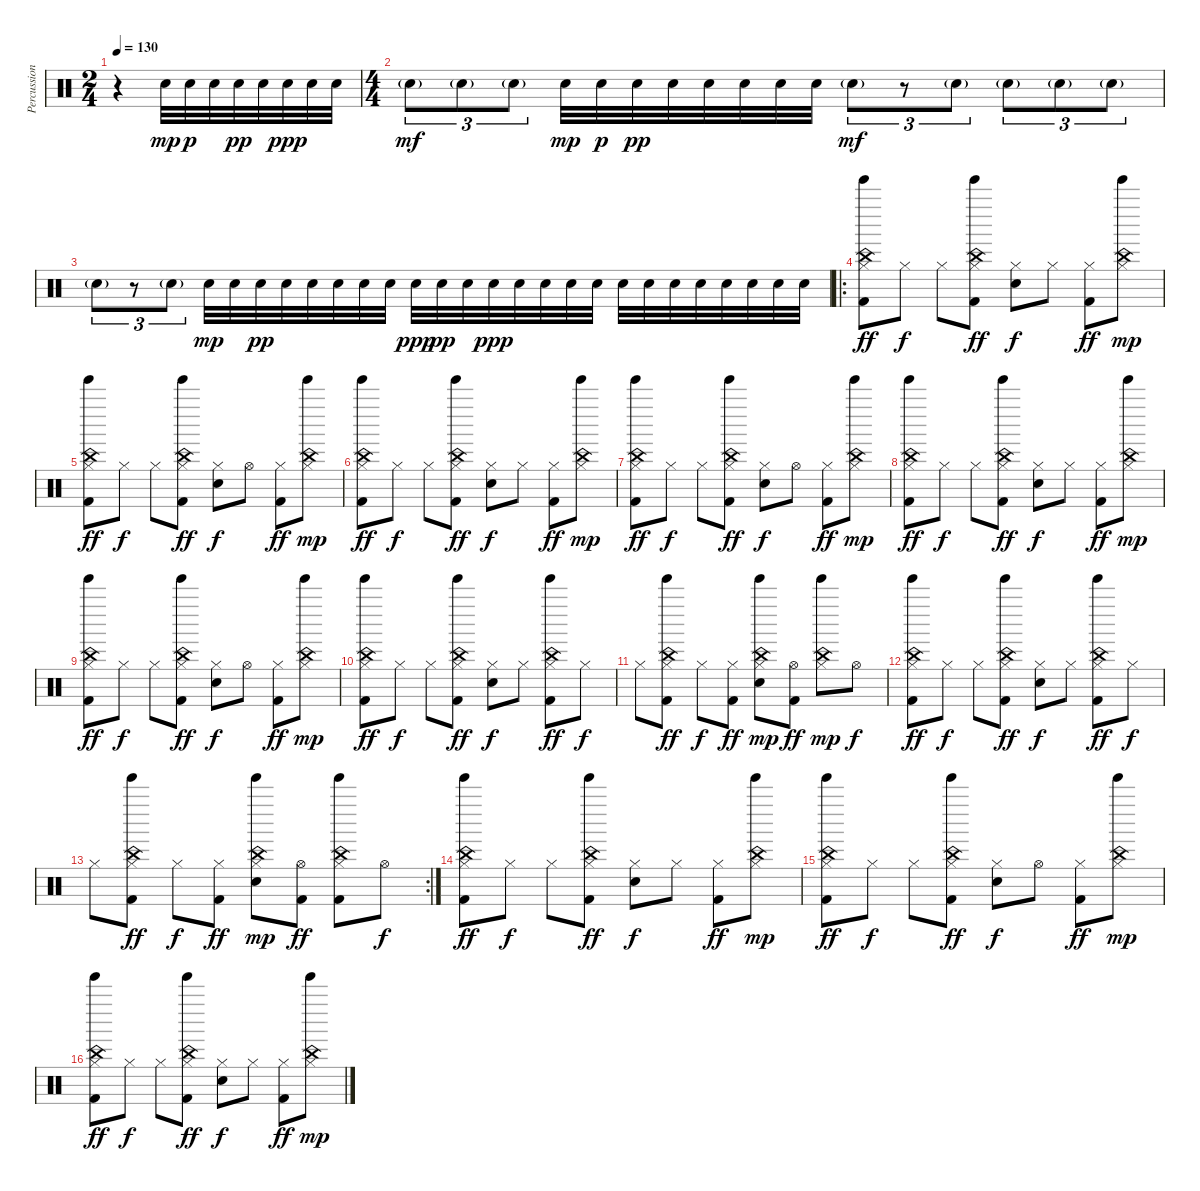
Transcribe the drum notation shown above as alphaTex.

\track ("Percussion" "Percussion") {instrument percussion}
\staff {score}
\articulation defaults
\ts (2 4)
\tempo 130
\clef neutral
\ks aminor
r.4{dy mp} "Snare (hit) 2".32 "Snare (hit) 2".32{dy p} "Snare (hit) 2".32 "Snare (hit) 2".32{dy pp} "Snare (hit) 2".32 "Snare (hit) 2".32{dy ppp} "Snare (hit) 2".32 "Snare (hit) 2".32 |
\ts (4 4)
"Electric Snare (hit)"{g}.8{tu (3 2) dy mf} "Electric Snare (hit)"{g}.8{tu (3 2)} "Electric Snare (hit)"{g}.8{tu (3 2)} "Snare (hit) 2".32{dy mp} "Snare (hit) 2".32{dy p} "Snare (hit) 2".32{dy pp} "Snare (hit) 2".32 "Snare (hit) 2".32 "Snare (hit) 2".32 "Snare (hit) 2".32 "Snare (hit) 2".32 "Electric Snare (hit)"{g}.8{tu (3 2) dy mf} r.8{tu (3 2)} "Electric Snare (hit)"{g}.8{tu (3 2)} "Electric Snare (hit)"{g}.8{tu (3 2)} "Electric Snare (hit)"{g}.8{tu (3 2)} "Electric Snare (hit)"{g}.8{tu (3 2)} |
"Electric Snare (hit)"{g}.8{tu (3 2)} r.8{tu (3 2)} "Electric Snare (hit)"{g}.8{tu (3 2)} "Snare (hit) 2".32{dy mp} "Snare (hit) 2".32 "Snare (hit) 2".32{dy pp} "Snare (hit) 2".32 "Snare (hit) 2".32 "Snare (hit) 2".32 "Snare (hit) 2".32 "Snare (hit) 2".32 "Snare (hit) 2".32{dy ppp} "Snare (hit) 2".32{dy pp} "Snare (hit) 2".32 "Snare (hit) 2".32{dy ppp} "Snare (hit) 2".32 "Snare (hit) 2".32 "Snare (hit) 2".32 "Snare (hit) 2".32 "Snare (hit) 2".32 "Snare (hit) 2".32 "Snare (hit) 2".32 "Snare (hit) 2".32 "Snare (hit) 2".32 "Snare (hit) 2".32 "Snare (hit) 2".32 "Snare (hit) 2".32 |
\ro
\ks c
("Hi-Hat (closed)" "China (hit)" "Tinkle Bell (hit)" "Kick (hit) 2").8{dy ff} "Hi-Hat (closed)".8{dy f} "Hi-Hat (closed)".8 ("Hi-Hat (closed)" "China (hit)" "Tinkle Bell (hit)" "Kick (hit) 2").8{dy ff} ("Hi-Hat (closed)" "Snare (hit) 2").8{dy f} "Hi-Hat (closed)".8 ("Hi-Hat (closed)" "Kick (hit) 2").8{dy ff} ("Hi-Hat (closed)" "China (hit)" "Tinkle Bell (hit)").8{dy mp} |
("Hi-Hat (closed)" "China (hit)" "Tinkle Bell (hit)" "Kick (hit) 2").8{dy ff} "Hi-Hat (closed)".8{dy f} "Hi-Hat (closed)".8 ("Hi-Hat (closed)" "China (hit)" "Tinkle Bell (hit)" "Kick (hit) 2").8{dy ff} ("Hi-Hat (closed)" "Snare (hit) 2").8{dy f} "Hi-Hat (open)".8 ("Hi-Hat (closed)" "Kick (hit) 2").8{dy ff} ("Hi-Hat (closed)" "China (hit)" "Tinkle Bell (hit)").8{dy mp} |
("Hi-Hat (closed)" "China (hit)" "Tinkle Bell (hit)" "Kick (hit) 2").8{dy ff} "Hi-Hat (closed)".8{dy f} "Hi-Hat (closed)".8 ("Hi-Hat (closed)" "China (hit)" "Tinkle Bell (hit)" "Kick (hit) 2").8{dy ff} ("Hi-Hat (closed)" "Snare (hit) 2").8{dy f} "Hi-Hat (closed)".8 ("Hi-Hat (closed)" "Kick (hit) 2").8{dy ff} ("Hi-Hat (closed)" "China (hit)" "Tinkle Bell (hit)").8{dy mp} |
("Hi-Hat (closed)" "China (hit)" "Tinkle Bell (hit)" "Kick (hit) 2").8{dy ff} "Hi-Hat (closed)".8{dy f} "Hi-Hat (closed)".8 ("Hi-Hat (closed)" "China (hit)" "Tinkle Bell (hit)" "Kick (hit) 2").8{dy ff} ("Hi-Hat (closed)" "Snare (hit) 2").8{dy f} "Hi-Hat (open)".8 ("Hi-Hat (closed)" "Kick (hit) 2").8{dy ff} ("Hi-Hat (closed)" "China (hit)" "Tinkle Bell (hit)").8{dy mp} |
("Hi-Hat (closed)" "China (hit)" "Tinkle Bell (hit)" "Kick (hit) 2").8{dy ff} "Hi-Hat (closed)".8{dy f} "Hi-Hat (closed)".8 ("Hi-Hat (closed)" "China (hit)" "Tinkle Bell (hit)" "Kick (hit) 2").8{dy ff} ("Hi-Hat (closed)" "Snare (hit) 2").8{dy f} "Hi-Hat (closed)".8 ("Hi-Hat (closed)" "Kick (hit) 2").8{dy ff} ("Hi-Hat (closed)" "China (hit)" "Tinkle Bell (hit)").8{dy mp} |
("Hi-Hat (closed)" "China (hit)" "Tinkle Bell (hit)" "Kick (hit) 2").8{dy ff} "Hi-Hat (closed)".8{dy f} "Hi-Hat (closed)".8 ("Hi-Hat (closed)" "China (hit)" "Tinkle Bell (hit)" "Kick (hit) 2").8{dy ff} ("Hi-Hat (closed)" "Snare (hit) 2").8{dy f} "Hi-Hat (open)".8 ("Hi-Hat (closed)" "Kick (hit) 2").8{dy ff} ("Hi-Hat (closed)" "China (hit)" "Tinkle Bell (hit)").8{dy mp} |
\ks aminor
("Hi-Hat (closed)" "China (hit)" "Tinkle Bell (hit)" "Kick (hit) 2").8{dy ff} "Hi-Hat (closed)".8{dy f} "Hi-Hat (closed)".8 ("Hi-Hat (closed)" "China (hit)" "Tinkle Bell (hit)" "Kick (hit) 2").8{dy ff} ("Hi-Hat (closed)" "Snare (hit) 2").8{dy f} "Hi-Hat (closed)".8 ("Hi-Hat (closed)" "China (hit)" "Tinkle Bell (hit)" "Kick (hit) 2").8{dy ff} "Hi-Hat (closed)".8{dy f} |
"Hi-Hat (closed)".8 ("Hi-Hat (closed)" "China (hit)" "Tinkle Bell (hit)" "Kick (hit) 2").8{dy ff} "Hi-Hat (closed)".8{dy f} ("Hi-Hat (closed)" "Kick (hit) 2").8{dy ff} ("Hi-Hat (closed)" "China (hit)" "Tinkle Bell (hit)" "Snare (hit) 2").8{dy mp} ("Hi-Hat (open)" "Kick (hit) 2").8{dy ff} ("Hi-Hat (closed)" "China (hit)" "Tinkle Bell (hit)").8{dy mp} "Hi-Hat (open)".8{dy f} |
("Hi-Hat (closed)" "China (hit)" "Tinkle Bell (hit)" "Kick (hit) 2").8{dy ff} "Hi-Hat (closed)".8{dy f} "Hi-Hat (closed)".8 ("Hi-Hat (closed)" "China (hit)" "Tinkle Bell (hit)" "Kick (hit) 2").8{dy ff} ("Hi-Hat (closed)" "Snare (hit) 2").8{dy f} "Hi-Hat (closed)".8 ("Hi-Hat (closed)" "China (hit)" "Tinkle Bell (hit)" "Kick (hit) 2").8{dy ff} "Hi-Hat (closed)".8{dy f} |
\rc 2 "Hi-Hat (closed)".8
("Hi-Hat (closed)" "China (hit)" "Tinkle Bell (hit)" "Kick (hit) 2").8{dy ff} "Hi-Hat (closed)".8{dy f} ("Hi-Hat (closed)" "Kick (hit) 2").8{dy ff} ("Hi-Hat (closed)" "China (hit)" "Tinkle Bell (hit)" "Snare (hit) 2").8{dy mp} ("Hi-Hat (open)" "Kick (hit) 2").8{dy ff} ("Hi-Hat (closed)" "China (hit)" "Tinkle Bell (hit)" "Kick (hit) 2").8 "Hi-Hat (open)".8{dy f} |
\ks c
("Hi-Hat (closed)" "China (hit)" "Tinkle Bell (hit)" "Kick (hit) 2").8{dy ff} "Hi-Hat (closed)".8{dy f} "Hi-Hat (closed)".8 ("Hi-Hat (closed)" "China (hit)" "Tinkle Bell (hit)" "Kick (hit) 2").8{dy ff} ("Hi-Hat (closed)" "Snare (hit) 2").8{dy f} "Hi-Hat (closed)".8 ("Hi-Hat (closed)" "Kick (hit) 2").8{dy ff} ("Hi-Hat (closed)" "China (hit)" "Tinkle Bell (hit)").8{dy mp} |
("Hi-Hat (closed)" "China (hit)" "Tinkle Bell (hit)" "Kick (hit) 2").8{dy ff} "Hi-Hat (closed)".8{dy f} "Hi-Hat (closed)".8 ("Hi-Hat (closed)" "China (hit)" "Tinkle Bell (hit)" "Kick (hit) 2").8{dy ff} ("Hi-Hat (closed)" "Snare (hit) 2").8{dy f} "Hi-Hat (open)".8 ("Hi-Hat (closed)" "Kick (hit) 2").8{dy ff} ("Hi-Hat (closed)" "China (hit)" "Tinkle Bell (hit)").8{dy mp} |
("Hi-Hat (closed)" "China (hit)" "Tinkle Bell (hit)" "Kick (hit) 2").8{dy ff} "Hi-Hat (closed)".8{dy f} "Hi-Hat (closed)".8 ("Hi-Hat (closed)" "China (hit)" "Tinkle Bell (hit)" "Kick (hit) 2").8{dy ff} ("Hi-Hat (closed)" "Snare (hit) 2").8{dy f} "Hi-Hat (closed)".8 ("Hi-Hat (closed)" "Kick (hit) 2").8{dy ff} ("Hi-Hat (closed)" "China (hit)" "Tinkle Bell (hit)").8{dy mp}
